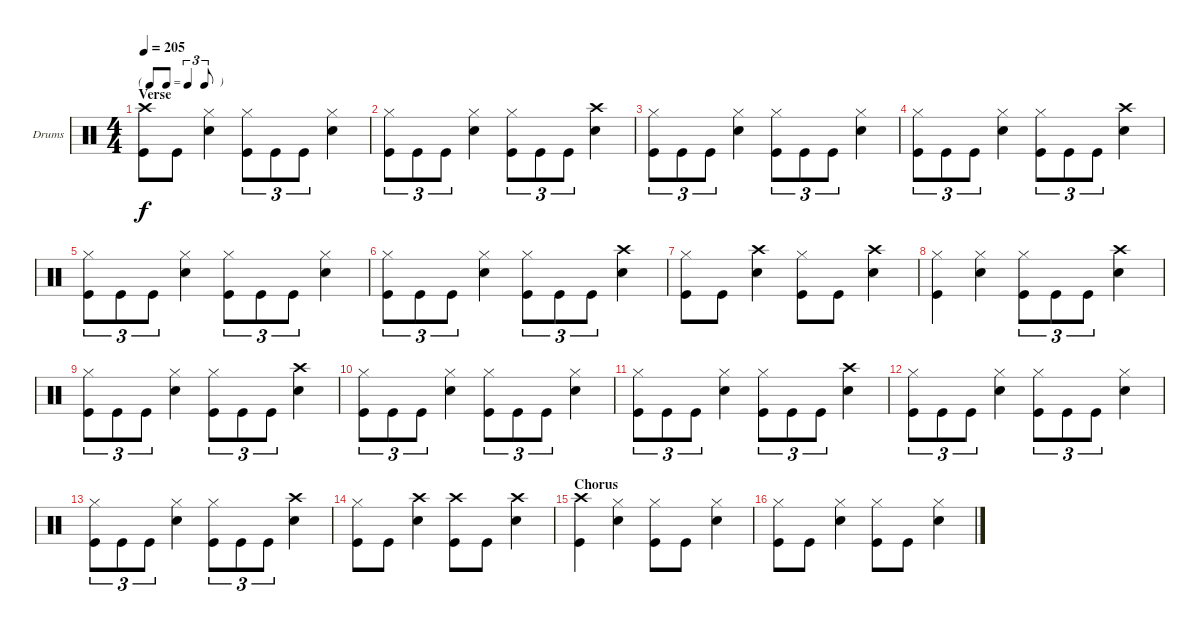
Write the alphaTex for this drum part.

\bracketExtendMode groupsimilarinstruments
\firstSystemTrackNameOrientation horizontal
\otherSystemsTrackNameOrientation horizontal
\track ("Drums" "Drums") {instrument percussion}
\staff {score}
\articulation defaults
\ts (4 4)
\tf triplet8th
\section ("" "Verse")
\tempo 205
\clef neutral
\ks c
("Crash high (hit)" "Kick (hit)").8{dy f} "Kick (hit)".8 ("Snare (hit) 2" "Hi-Hat (closed)").4 ("Hi-Hat (closed)" "Kick (hit)").8{tu (3 2)} "Kick (hit)".8{tu (3 2)} "Kick (hit)".8{tu (3 2)} ("Hi-Hat (closed)" "Snare (hit) 2").4 |
("Hi-Hat (closed)" "Kick (hit)").8{tu (3 2)} "Kick (hit)".8{tu (3 2)} "Kick (hit)".8{tu (3 2)} ("Snare (hit) 2" "Hi-Hat (closed)").4 ("Hi-Hat (closed)" "Kick (hit)").8{tu (3 2)} "Kick (hit)".8{tu (3 2)} "Kick (hit)".8{tu (3 2)} ("Crash high (hit)" "Snare (hit) 2").4 |
("Hi-Hat (closed)" "Kick (hit)").8{tu (3 2)} "Kick (hit)".8{tu (3 2)} "Kick (hit)".8{tu (3 2)} ("Snare (hit) 2" "Hi-Hat (closed)").4 ("Hi-Hat (closed)" "Kick (hit)").8{tu (3 2)} "Kick (hit)".8{tu (3 2)} "Kick (hit)".8{tu (3 2)} ("Hi-Hat (closed)" "Snare (hit) 2").4 |
("Hi-Hat (closed)" "Kick (hit)").8{tu (3 2)} "Kick (hit)".8{tu (3 2)} "Kick (hit)".8{tu (3 2)} ("Snare (hit) 2" "Hi-Hat (closed)").4 ("Hi-Hat (closed)" "Kick (hit)").8{tu (3 2)} "Kick (hit)".8{tu (3 2)} "Kick (hit)".8{tu (3 2)} ("Crash high (hit)" "Snare (hit) 2").4 |
("Hi-Hat (closed)" "Kick (hit)").8{tu (3 2)} "Kick (hit)".8{tu (3 2)} "Kick (hit)".8{tu (3 2)} ("Snare (hit) 2" "Hi-Hat (closed)").4 ("Hi-Hat (closed)" "Kick (hit)").8{tu (3 2)} "Kick (hit)".8{tu (3 2)} "Kick (hit)".8{tu (3 2)} ("Hi-Hat (closed)" "Snare (hit) 2").4 |
("Hi-Hat (closed)" "Kick (hit)").8{tu (3 2)} "Kick (hit)".8{tu (3 2)} "Kick (hit)".8{tu (3 2)} ("Snare (hit) 2" "Hi-Hat (closed)").4 ("Hi-Hat (closed)" "Kick (hit)").8{tu (3 2)} "Kick (hit)".8{tu (3 2)} "Kick (hit)".8{tu (3 2)} ("Crash high (hit)" "Snare (hit) 2").4 |
("Kick (hit)" "Hi-Hat (closed)").8 "Kick (hit)".8 ("Crash high (hit)" "Snare (hit) 2").4 ("Kick (hit)" "Hi-Hat (closed)").8 "Kick (hit)".8 ("Crash high (hit)" "Snare (hit) 2").4 |
("Hi-Hat (closed)" "Kick (hit)").4 ("Snare (hit) 2" "Hi-Hat (closed)").4 ("Hi-Hat (closed)" "Kick (hit)").8{tu (3 2)} "Kick (hit)".8{tu (3 2)} "Kick (hit)".8{tu (3 2)} ("Crash high (hit)" "Snare (hit) 2").4 |
("Hi-Hat (closed)" "Kick (hit)").8{tu (3 2)} "Kick (hit)".8{tu (3 2)} "Kick (hit)".8{tu (3 2)} ("Snare (hit) 2" "Hi-Hat (closed)").4 ("Hi-Hat (closed)" "Kick (hit)").8{tu (3 2)} "Kick (hit)".8{tu (3 2)} "Kick (hit)".8{tu (3 2)} ("Crash high (hit)" "Snare (hit) 2").4 |
("Hi-Hat (closed)" "Kick (hit)").8{tu (3 2)} "Kick (hit)".8{tu (3 2)} "Kick (hit)".8{tu (3 2)} ("Snare (hit) 2" "Hi-Hat (closed)").4 ("Hi-Hat (closed)" "Kick (hit)").8{tu (3 2)} "Kick (hit)".8{tu (3 2)} "Kick (hit)".8{tu (3 2)} ("Hi-Hat (closed)" "Snare (hit) 2").4 |
("Hi-Hat (closed)" "Kick (hit)").8{tu (3 2)} "Kick (hit)".8{tu (3 2)} "Kick (hit)".8{tu (3 2)} ("Snare (hit) 2" "Hi-Hat (closed)").4 ("Hi-Hat (closed)" "Kick (hit)").8{tu (3 2)} "Kick (hit)".8{tu (3 2)} "Kick (hit)".8{tu (3 2)} ("Crash high (hit)" "Snare (hit) 2").4 |
("Hi-Hat (closed)" "Kick (hit)").8{tu (3 2)} "Kick (hit)".8{tu (3 2)} "Kick (hit)".8{tu (3 2)} ("Snare (hit) 2" "Hi-Hat (closed)").4 ("Hi-Hat (closed)" "Kick (hit)").8{tu (3 2)} "Kick (hit)".8{tu (3 2)} "Kick (hit)".8{tu (3 2)} ("Hi-Hat (closed)" "Snare (hit) 2").4 |
("Hi-Hat (closed)" "Kick (hit)").8{tu (3 2)} "Kick (hit)".8{tu (3 2)} "Kick (hit)".8{tu (3 2)} ("Snare (hit) 2" "Hi-Hat (closed)").4 ("Hi-Hat (closed)" "Kick (hit)").8{tu (3 2)} "Kick (hit)".8{tu (3 2)} "Kick (hit)".8{tu (3 2)} ("Crash high (hit)" "Snare (hit) 2").4 |
("Hi-Hat (closed)" "Kick (hit)").8 "Kick (hit)".8 ("Crash high (hit)" "Snare (hit) 2").4 ("Crash high (hit)" "Kick (hit)").8 "Kick (hit)".8 ("Crash high (hit)" "Snare (hit) 2").4 |
\section ("" "Chorus")
("Kick (hit)" "Crash high (hit)").4 ("Hi-Hat (closed)" "Snare (hit) 2").4 ("Hi-Hat (closed)" "Kick (hit)").8 "Kick (hit)".8 ("Snare (hit) 2" "Hi-Hat (closed)").4 |
("Kick (hit)" "Hi-Hat (closed)").8 "Kick (hit)".8 ("Snare (hit) 2" "Hi-Hat (closed)").4 ("Kick (hit)" "Hi-Hat (closed)").8 "Kick (hit)".8 ("Snare (hit) 2" "Hi-Hat (closed)").4
